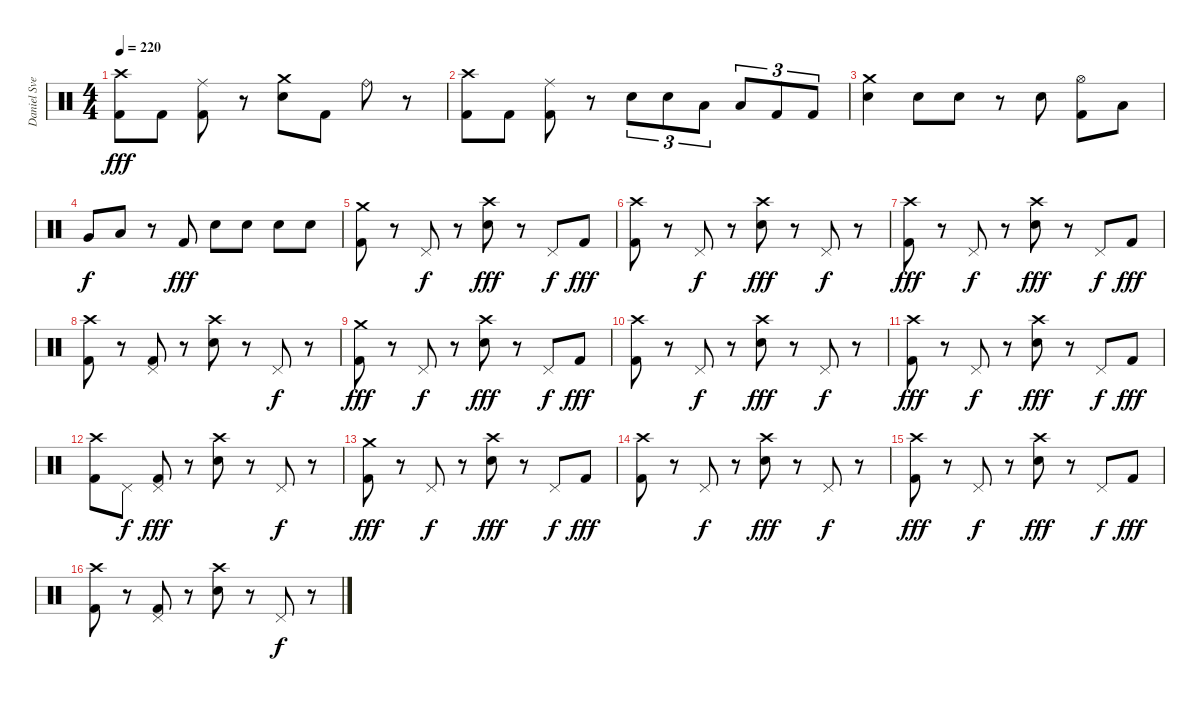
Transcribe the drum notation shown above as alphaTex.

\track ("Daniel Svensson" "Daniel Sve") {instrument percussion}
\staff {score}
\articulation defaults
\ts (4 4)
\tempo 220
\clef neutral
\ks c
("Crash high (hit)" "Kick (hit) 2").8{dy fff} "Kick (hit) 2".8 ("Ride (middle)" "Kick (hit) 2").8 r.8 ("Crash medium (hit)" "Electric Snare (hit)").8 "Kick (hit) 2".8 "Ride (bell)".8 r.8 |
("Crash high (hit)" "Kick (hit) 2").8 "Kick (hit) 2".8 ("Ride (middle)" "Kick (hit) 2").8 r.8 "Electric Snare (hit)".8{tu (3 2)} "Electric Snare (hit)".8{tu (3 2)} "Low Floor Tom (hit)".8{tu (3 2)} "Low Floor Tom (hit)".8{tu (3 2)} "Kick (hit) 2".8{tu (3 2)} "Kick (hit) 2".8{tu (3 2)} |
("Crash medium (hit)" "Electric Snare (hit)").4 "Electric Snare (hit)".8 "Electric Snare (hit)".8 r.8 "Electric Snare (hit)".8 ("Hi-Hat (open)" "Kick (hit) 2").8 "Low Floor Tom (hit)".8 |
"Very Low Tom (hit)".8{dy f} "Low Floor Tom (hit)".8 r.8 "Kick (hit) 2".8{dy fff} "Electric Snare (hit)".8 "Electric Snare (hit)".8 "Electric Snare (hit)".8 "Electric Snare (hit)".8 |
("Crash medium (hit)" "Kick (hit) 2").8 r.8 "Pedal Hi-Hat (hit)".8{dy f} r.8 ("Crash high (hit)" "Electric Snare (hit)").8{dy fff} r.8 "Pedal Hi-Hat (hit)".8{dy f} "Kick (hit) 2".8{dy fff} |
("Crash high (hit)" "Kick (hit) 2").8 r.8 "Pedal Hi-Hat (hit)".8{dy f} r.8 ("Crash high (hit)" "Electric Snare (hit)").8{dy fff} r.8 "Pedal Hi-Hat (hit)".8{dy f} r.8 |
("Crash high (hit)" "Kick (hit) 2").8{dy fff} r.8 "Pedal Hi-Hat (hit)".8{dy f} r.8 ("Crash high (hit)" "Electric Snare (hit)").8{dy fff} r.8 "Pedal Hi-Hat (hit)".8{dy f} "Kick (hit) 2".8{dy fff} |
("Crash high (hit)" "Kick (hit) 2").8 r.8 ("Pedal Hi-Hat (hit)" "Kick (hit) 2").8 r.8 ("Crash high (hit)" "Electric Snare (hit)").8 r.8 "Pedal Hi-Hat (hit)".8{dy f} r.8 |
("Crash medium (hit)" "Kick (hit) 2").8{dy fff} r.8 "Pedal Hi-Hat (hit)".8{dy f} r.8 ("Crash high (hit)" "Electric Snare (hit)").8{dy fff} r.8 "Pedal Hi-Hat (hit)".8{dy f} "Kick (hit) 2".8{dy fff} |
("Crash high (hit)" "Kick (hit) 2").8 r.8 "Pedal Hi-Hat (hit)".8{dy f} r.8 ("Crash high (hit)" "Electric Snare (hit)").8{dy fff} r.8 "Pedal Hi-Hat (hit)".8{dy f} r.8 |
("Crash high (hit)" "Kick (hit) 2").8{dy fff} r.8 "Pedal Hi-Hat (hit)".8{dy f} r.8 ("Crash high (hit)" "Electric Snare (hit)").8{dy fff} r.8 "Pedal Hi-Hat (hit)".8{dy f} "Kick (hit) 2".8{dy fff} |
("Crash high (hit)" "Kick (hit) 2").8 "Pedal Hi-Hat (hit)".8{dy f} ("Pedal Hi-Hat (hit)" "Kick (hit) 2").8{dy fff} r.8 ("Crash high (hit)" "Electric Snare (hit)").8 r.8 "Pedal Hi-Hat (hit)".8{dy f} r.8 |
("Crash medium (hit)" "Kick (hit) 2").8{dy fff} r.8 "Pedal Hi-Hat (hit)".8{dy f} r.8 ("Crash high (hit)" "Electric Snare (hit)").8{dy fff} r.8 "Pedal Hi-Hat (hit)".8{dy f} "Kick (hit) 2".8{dy fff} |
("Crash high (hit)" "Kick (hit) 2").8 r.8 "Pedal Hi-Hat (hit)".8{dy f} r.8 ("Crash high (hit)" "Electric Snare (hit)").8{dy fff} r.8 "Pedal Hi-Hat (hit)".8{dy f} r.8 |
("Crash high (hit)" "Kick (hit) 2").8{dy fff} r.8 "Pedal Hi-Hat (hit)".8{dy f} r.8 ("Crash high (hit)" "Electric Snare (hit)").8{dy fff} r.8 "Pedal Hi-Hat (hit)".8{dy f} "Kick (hit) 2".8{dy fff} |
("Crash high (hit)" "Kick (hit) 2").8 r.8 ("Pedal Hi-Hat (hit)" "Kick (hit) 2").8 r.8 ("Crash high (hit)" "Electric Snare (hit)").8 r.8 "Pedal Hi-Hat (hit)".8{dy f} r.8
